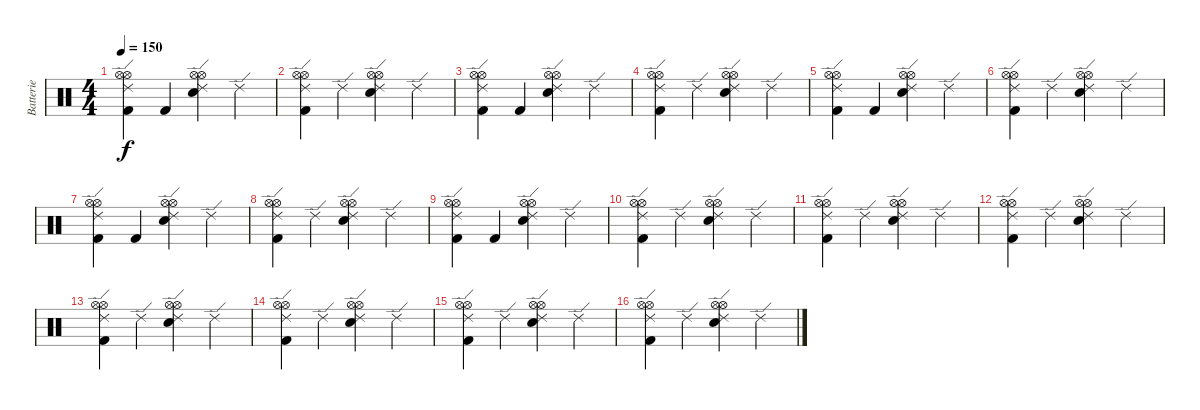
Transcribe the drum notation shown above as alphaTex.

\track ("Batterie" "Batterie") {instrument percussion}
\staff {score}
\articulation defaults
\ts (4 4)
\tempo 150
\clef neutral
\ks c
("Hi-Hat (open)" "Hi-Hat (open)" "Ride (edge) 2" "Kick (hit) 2").4{dy f} "Kick (hit) 2".4 ("Snare (hit) 2" "Hi-Hat (open)" "Hi-Hat (open)" "Ride (edge) 2").4 "Ride (edge) 2".4 |
("Hi-Hat (open)" "Hi-Hat (open)" "Ride (edge) 2" "Kick (hit) 2").4 "Ride (edge) 2".4 ("Snare (hit) 2" "Hi-Hat (open)" "Hi-Hat (open)" "Ride (edge) 2").4 "Ride (edge) 2".4 |
("Hi-Hat (open)" "Hi-Hat (open)" "Ride (edge) 2" "Kick (hit) 2").4 "Kick (hit) 2".4 ("Snare (hit) 2" "Hi-Hat (open)" "Hi-Hat (open)" "Ride (edge) 2").4 "Ride (edge) 2".4 |
("Hi-Hat (open)" "Hi-Hat (open)" "Ride (edge) 2" "Kick (hit) 2").4 "Ride (edge) 2".4 ("Snare (hit) 2" "Hi-Hat (open)" "Hi-Hat (open)" "Ride (edge) 2").4 "Ride (edge) 2".4 |
("Hi-Hat (open)" "Hi-Hat (open)" "Ride (edge) 2" "Kick (hit) 2").4 "Kick (hit) 2".4 ("Snare (hit) 2" "Hi-Hat (open)" "Hi-Hat (open)" "Ride (edge) 2").4 "Ride (edge) 2".4 |
("Hi-Hat (open)" "Hi-Hat (open)" "Ride (edge) 2" "Kick (hit) 2").4 "Ride (edge) 2".4 ("Snare (hit) 2" "Hi-Hat (open)" "Hi-Hat (open)" "Ride (edge) 2").4 "Ride (edge) 2".4 |
("Hi-Hat (open)" "Hi-Hat (open)" "Ride (edge) 2" "Kick (hit) 2").4 "Kick (hit) 2".4 ("Snare (hit) 2" "Hi-Hat (open)" "Hi-Hat (open)" "Ride (edge) 2").4 "Ride (edge) 2".4 |
("Hi-Hat (open)" "Hi-Hat (open)" "Ride (edge) 2" "Kick (hit) 2").4 "Ride (edge) 2".4 ("Snare (hit) 2" "Hi-Hat (open)" "Hi-Hat (open)" "Ride (edge) 2").4 "Ride (edge) 2".4 |
("Hi-Hat (open)" "Hi-Hat (open)" "Ride (edge) 2" "Kick (hit) 2").4 "Kick (hit) 2".4 ("Snare (hit) 2" "Hi-Hat (open)" "Hi-Hat (open)" "Ride (edge) 2").4 "Ride (edge) 2".4 |
\section ("" "")
("Hi-Hat (open)" "Hi-Hat (open)" "Ride (edge) 2" "Kick (hit) 2").4 "Ride (edge) 2".4 ("Snare (hit) 2" "Hi-Hat (open)" "Hi-Hat (open)" "Ride (edge) 2").4 "Ride (edge) 2".4 |
("Hi-Hat (open)" "Hi-Hat (open)" "Ride (edge) 2" "Kick (hit) 2").4 "Ride (edge) 2".4 ("Snare (hit) 2" "Hi-Hat (open)" "Hi-Hat (open)" "Ride (edge) 2").4 "Ride (edge) 2".4 |
("Hi-Hat (open)" "Hi-Hat (open)" "Ride (edge) 2" "Kick (hit) 2").4 "Ride (edge) 2".4 ("Snare (hit) 2" "Hi-Hat (open)" "Hi-Hat (open)" "Ride (edge) 2").4 "Ride (edge) 2".4 |
("Hi-Hat (open)" "Hi-Hat (open)" "Ride (edge) 2" "Kick (hit) 2").4 "Ride (edge) 2".4 ("Snare (hit) 2" "Hi-Hat (open)" "Hi-Hat (open)" "Ride (edge) 2").4 "Ride (edge) 2".4 |
("Hi-Hat (open)" "Hi-Hat (open)" "Ride (edge) 2" "Kick (hit) 2").4 "Ride (edge) 2".4 ("Snare (hit) 2" "Hi-Hat (open)" "Hi-Hat (open)" "Ride (edge) 2").4 "Ride (edge) 2".4 |
("Hi-Hat (open)" "Hi-Hat (open)" "Ride (edge) 2" "Kick (hit) 2").4 "Ride (edge) 2".4 ("Snare (hit) 2" "Hi-Hat (open)" "Hi-Hat (open)" "Ride (edge) 2").4 "Ride (edge) 2".4 |
("Hi-Hat (open)" "Hi-Hat (open)" "Ride (edge) 2" "Kick (hit) 2").4 "Ride (edge) 2".4 ("Snare (hit) 2" "Hi-Hat (open)" "Hi-Hat (open)" "Ride (edge) 2").4 "Ride (edge) 2".4
